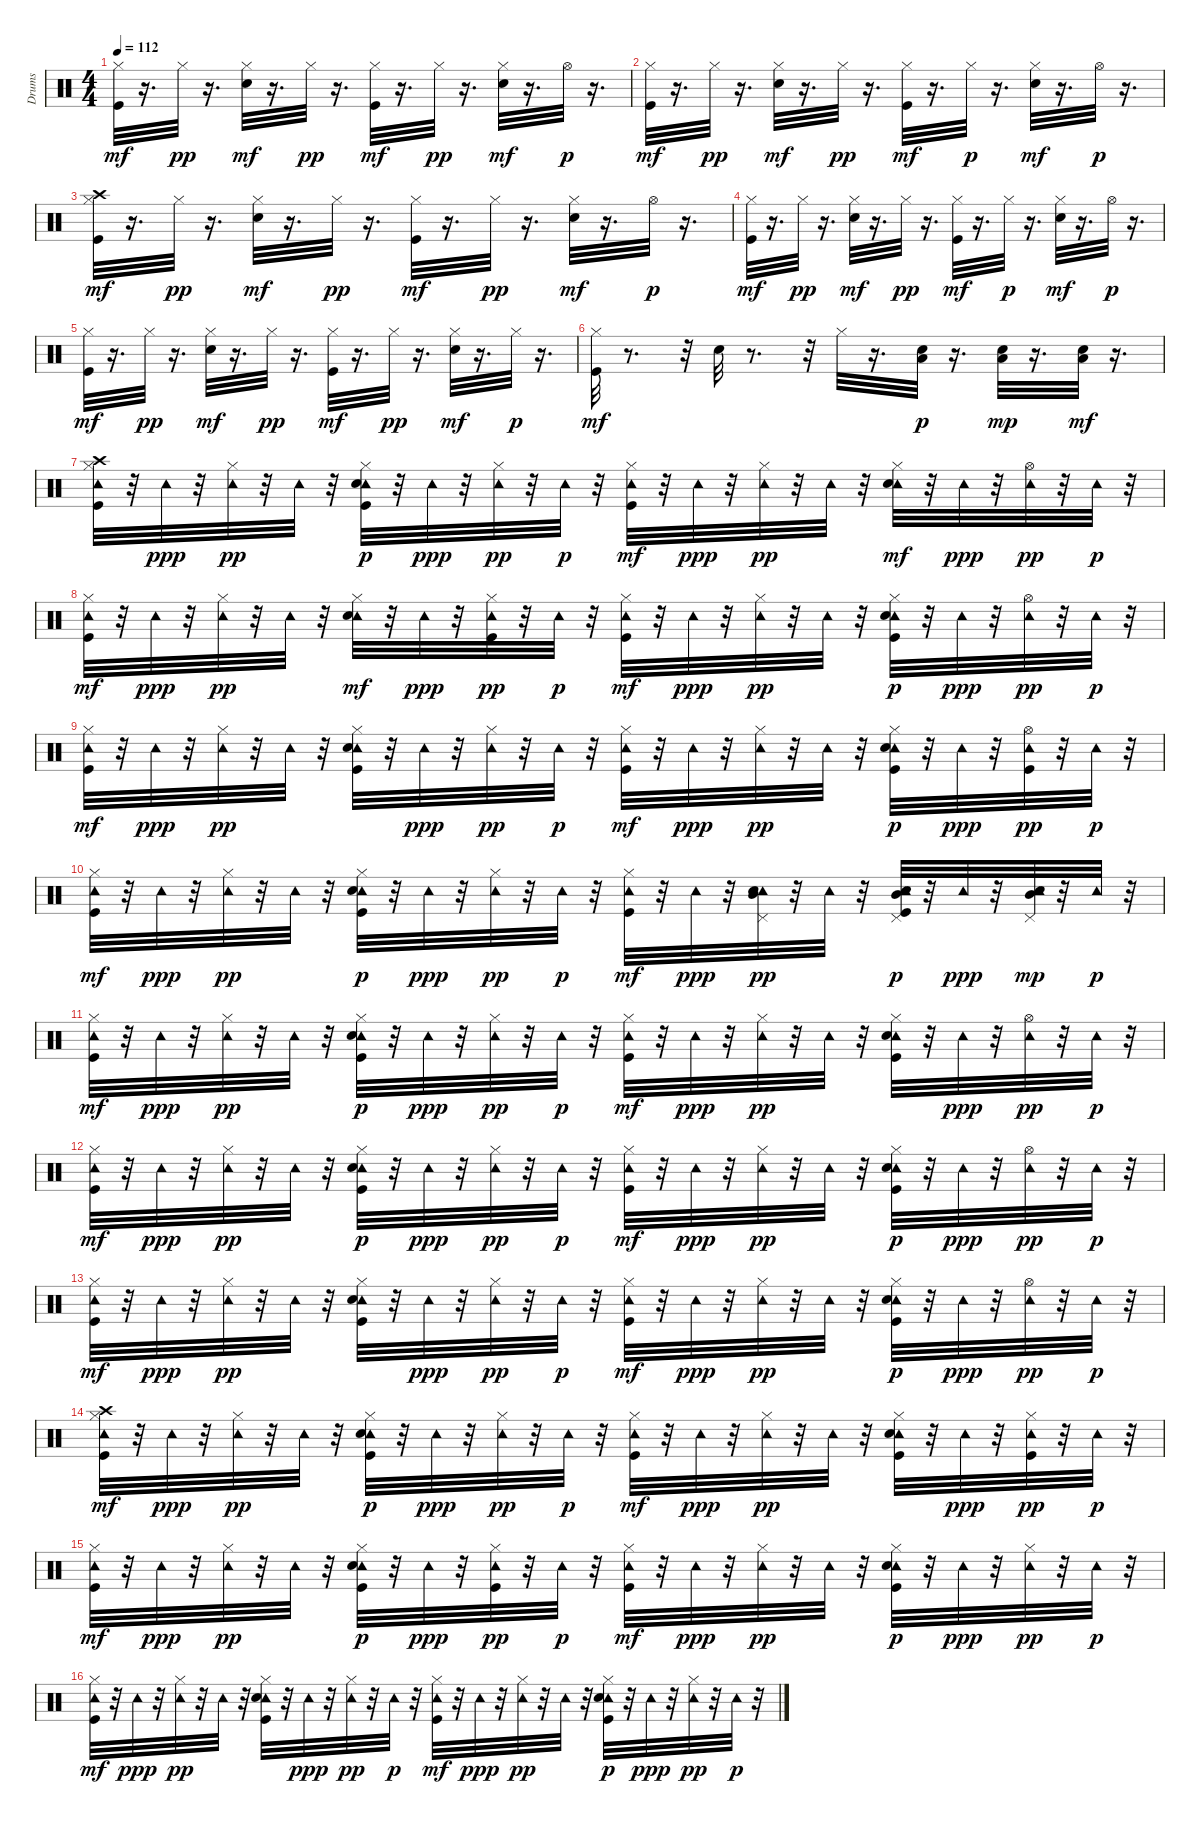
\track ("Drums" "Drums") {instrument percussion}
\staff {score}
\articulation defaults
\ts (4 4)
\tempo 112
\clef neutral
\ks c
("Hi-Hat (closed)" "Kick (hit)").32{dy mf} r.16{d} "Hi-Hat (closed)".32{dy pp} r.16{d} ("Hi-Hat (closed)" "Electric Snare (hit)").32{dy mf} r.16{d} "Hi-Hat (closed)".32{dy pp} r.16{d} ("Hi-Hat (closed)" "Kick (hit)").32{dy mf} r.16{d} "Hi-Hat (closed)".32{dy pp} r.16{d} ("Hi-Hat (closed)" "Electric Snare (hit)").32{dy mf} r.16{d} "Hi-Hat (open)".32{dy p} r.16{d} |
("Hi-Hat (closed)" "Kick (hit)").32{dy mf} r.16{d} "Hi-Hat (closed)".32{dy pp} r.16{d} ("Hi-Hat (closed)" "Electric Snare (hit)").32{dy mf} r.16{d} "Hi-Hat (closed)".32{dy pp} r.16{d} ("Hi-Hat (closed)" "Kick (hit)").32{dy mf} r.16{d} "Hi-Hat (closed)".32{dy p} r.16{d} ("Hi-Hat (closed)" "Electric Snare (hit)").32{dy mf} r.16{d} "Hi-Hat (open)".32{dy p} r.16{d} |
("Crash high (hit)" "Hi-Hat (closed)" "Kick (hit)").32{dy mf} r.16{d} "Hi-Hat (closed)".32{dy pp} r.16{d} ("Hi-Hat (closed)" "Electric Snare (hit)").32{dy mf} r.16{d} "Hi-Hat (closed)".32{dy pp} r.16{d} ("Hi-Hat (closed)" "Kick (hit)").32{dy mf} r.16{d} "Hi-Hat (closed)".32{dy pp} r.16{d} ("Hi-Hat (closed)" "Electric Snare (hit)").32{dy mf} r.16{d} "Hi-Hat (open)".32{dy p} r.16{d} |
("Hi-Hat (closed)" "Kick (hit)").32{dy mf} r.16{d} "Hi-Hat (closed)".32{dy pp} r.16{d} ("Hi-Hat (closed)" "Electric Snare (hit)").32{dy mf} r.16{d} "Hi-Hat (closed)".32{dy pp} r.16{d} ("Hi-Hat (closed)" "Kick (hit)").32{dy mf} r.16{d} "Hi-Hat (closed)".32{dy p} r.16{d} ("Hi-Hat (closed)" "Electric Snare (hit)").32{dy mf} r.16{d} "Hi-Hat (open)".32{dy p} r.16{d} |
("Hi-Hat (closed)" "Kick (hit)").32{dy mf} r.16{d} "Hi-Hat (closed)".32{dy pp} r.16{d} ("Hi-Hat (closed)" "Electric Snare (hit)").32{dy mf} r.16{d} "Hi-Hat (closed)".32{dy pp} r.16{d} ("Hi-Hat (closed)" "Kick (hit)").32{dy mf} r.16{d} "Hi-Hat (closed)".32{dy pp} r.16{d} ("Hi-Hat (closed)" "Electric Snare (hit)").32{dy mf} r.16{d} "Hi-Hat (closed)".32{dy p} r.16{d} |
("Hi-Hat (closed)" "Kick (hit)").32{dy mf} r.8{d} r.32 "Electric Snare (hit)".32 r.8{d} r.32 "Hi-Hat (closed)".32 r.16{d} ("Low Tom (hit)" "Electric Snare (hit)").32{dy p} r.16{d} ("Low Tom (hit)" "Electric Snare (hit)").32{dy mp} r.16{d} ("Low Tom (hit)" "Electric Snare (hit)").32{dy mf} r.16{d} |
("Tambourine (hit)" "Hi-Hat (closed)" "Crash high (hit)" "Kick (hit)").32 r.32 "Tambourine (hit)".32{dy ppp} r.32 ("Tambourine (hit)" "Hi-Hat (closed)").32{dy pp} r.32 "Tambourine (hit)".32 r.32 ("Tambourine (hit)" "Hi-Hat (closed)" "Electric Snare (hit)" "Kick (hit)").32{dy p} r.32 "Tambourine (hit)".32{dy ppp} r.32 ("Tambourine (hit)" "Hi-Hat (closed)").32{dy pp} r.32 "Tambourine (hit)".32{dy p} r.32 ("Tambourine (hit)" "Hi-Hat (closed)" "Kick (hit)").32{dy mf} r.32 "Tambourine (hit)".32{dy ppp} r.32 ("Tambourine (hit)" "Hi-Hat (closed)").32{dy pp} r.32 "Tambourine (hit)".32 r.32 ("Tambourine (hit)" "Hi-Hat (closed)" "Electric Snare (hit)").32{dy mf} r.32 "Tambourine (hit)".32{dy ppp} r.32 ("Hi-Hat (open)" "Tambourine (hit)").32{dy pp} r.32 "Tambourine (hit)".32{dy p} r.32 |
("Tambourine (hit)" "Hi-Hat (closed)" "Kick (hit)").32{dy mf} r.32 "Tambourine (hit)".32{dy ppp} r.32 ("Tambourine (hit)" "Hi-Hat (closed)").32{dy pp} r.32 "Tambourine (hit)".32 r.32 ("Tambourine (hit)" "Hi-Hat (closed)" "Electric Snare (hit)").32{dy mf} r.32 "Tambourine (hit)".32{dy ppp} r.32 ("Kick (hit)" "Tambourine (hit)" "Hi-Hat (closed)").32{dy pp} r.32 "Tambourine (hit)".32{dy p} r.32 ("Tambourine (hit)" "Hi-Hat (closed)" "Kick (hit)").32{dy mf} r.32 "Tambourine (hit)".32{dy ppp} r.32 ("Tambourine (hit)" "Hi-Hat (closed)").32{dy pp} r.32 "Tambourine (hit)".32 r.32 ("Tambourine (hit)" "Hi-Hat (closed)" "Electric Snare (hit)" "Kick (hit)").32{dy p} r.32 "Tambourine (hit)".32{dy ppp} r.32 ("Hi-Hat (open)" "Tambourine (hit)").32{dy pp} r.32 "Tambourine (hit)".32{dy p} r.32 |
("Tambourine (hit)" "Hi-Hat (closed)" "Kick (hit)").32{dy mf} r.32 "Tambourine (hit)".32{dy ppp} r.32 ("Tambourine (hit)" "Hi-Hat (closed)").32{dy pp} r.32 "Tambourine (hit)".32 r.32 ("Tambourine (hit)" "Hi-Hat (closed)" "Electric Snare (hit)" "Kick (hit)").32 r.32 "Tambourine (hit)".32{dy ppp} r.32 ("Tambourine (hit)" "Hi-Hat (closed)").32{dy pp} r.32 "Tambourine (hit)".32{dy p} r.32 ("Tambourine (hit)" "Hi-Hat (closed)" "Kick (hit)").32{dy mf} r.32 "Tambourine (hit)".32{dy ppp} r.32 ("Tambourine (hit)" "Hi-Hat (closed)").32{dy pp} r.32 "Tambourine (hit)".32 r.32 ("Tambourine (hit)" "Hi-Hat (closed)" "Electric Snare (hit)" "Kick (hit)").32{dy p} r.32 "Tambourine (hit)".32{dy ppp} r.32 ("Kick (hit)" "Hi-Hat (open)" "Tambourine (hit)").32{dy pp} r.32 "Tambourine (hit)".32{dy p} r.32 |
("Tambourine (hit)" "Hi-Hat (closed)" "Kick (hit)").32{dy mf} r.32 "Tambourine (hit)".32{dy ppp} r.32 ("Tambourine (hit)" "Hi-Hat (closed)").32{dy pp} r.32 "Tambourine (hit)".32 r.32 ("Tambourine (hit)" "Hi-Hat (closed)" "Electric Snare (hit)" "Kick (hit)").32{dy p} r.32 "Tambourine (hit)".32{dy ppp} r.32 ("Tambourine (hit)" "Hi-Hat (closed)").32{dy pp} r.32 "Tambourine (hit)".32{dy p} r.32 ("Tambourine (hit)" "Hi-Hat (closed)" "Kick (hit)").32{dy mf} r.32 "Tambourine (hit)".32{dy ppp} r.32 ("Tambourine (hit)" "Pedal Hi-Hat (hit)" "Mid Tom (hit)" "Electric Snare (hit)").32{dy pp} r.32 "Tambourine (hit)".32 r.32 ("Tambourine (hit)" "Pedal Hi-Hat (hit)" "Mid Tom (hit)" "Electric Snare (hit)" "Kick (hit)").32{dy p} r.32 "Tambourine (hit)".32{dy ppp} r.32 ("Tambourine (hit)" "Pedal Hi-Hat (hit)" "Mid Tom (hit)" "Electric Snare (hit)").32{dy mp} r.32 "Tambourine (hit)".32{dy p} r.32 |
("Tambourine (hit)" "Hi-Hat (closed)" "Kick (hit)").32{dy mf} r.32 "Tambourine (hit)".32{dy ppp} r.32 ("Tambourine (hit)" "Hi-Hat (closed)").32{dy pp} r.32 "Tambourine (hit)".32 r.32 ("Tambourine (hit)" "Hi-Hat (closed)" "Electric Snare (hit)" "Kick (hit)").32{dy p} r.32 "Tambourine (hit)".32{dy ppp} r.32 ("Tambourine (hit)" "Hi-Hat (closed)").32{dy pp} r.32 "Tambourine (hit)".32{dy p} r.32 ("Tambourine (hit)" "Hi-Hat (closed)" "Kick (hit)").32{dy mf} r.32 "Tambourine (hit)".32{dy ppp} r.32 ("Tambourine (hit)" "Hi-Hat (closed)").32{dy pp} r.32 "Tambourine (hit)".32 r.32 ("Tambourine (hit)" "Hi-Hat (closed)" "Electric Snare (hit)" "Kick (hit)").32 r.32 "Tambourine (hit)".32{dy ppp} r.32 ("Hi-Hat (open)" "Tambourine (hit)").32{dy pp} r.32 "Tambourine (hit)".32{dy p} r.32 |
("Tambourine (hit)" "Hi-Hat (closed)" "Kick (hit)").32{dy mf} r.32 "Tambourine (hit)".32{dy ppp} r.32 ("Tambourine (hit)" "Hi-Hat (closed)").32{dy pp} r.32 "Tambourine (hit)".32 r.32 ("Tambourine (hit)" "Hi-Hat (closed)" "Electric Snare (hit)" "Kick (hit)").32{dy p} r.32 "Tambourine (hit)".32{dy ppp} r.32 ("Tambourine (hit)" "Hi-Hat (closed)").32{dy pp} r.32 "Tambourine (hit)".32{dy p} r.32 ("Tambourine (hit)" "Hi-Hat (closed)" "Kick (hit)").32{dy mf} r.32 "Tambourine (hit)".32{dy ppp} r.32 ("Tambourine (hit)" "Hi-Hat (closed)").32{dy pp} r.32 "Tambourine (hit)".32 r.32 ("Tambourine (hit)" "Hi-Hat (closed)" "Electric Snare (hit)" "Kick (hit)").32{dy p} r.32 "Tambourine (hit)".32{dy ppp} r.32 ("Hi-Hat (open)" "Tambourine (hit)").32{dy pp} r.32 "Tambourine (hit)".32{dy p} r.32 |
("Tambourine (hit)" "Hi-Hat (closed)" "Kick (hit)").32{dy mf} r.32 "Tambourine (hit)".32{dy ppp} r.32 ("Tambourine (hit)" "Hi-Hat (closed)").32{dy pp} r.32 "Tambourine (hit)".32 r.32 ("Tambourine (hit)" "Hi-Hat (closed)" "Electric Snare (hit)" "Kick (hit)").32 r.32 "Tambourine (hit)".32{dy ppp} r.32 ("Tambourine (hit)" "Hi-Hat (closed)").32{dy pp} r.32 "Tambourine (hit)".32{dy p} r.32 ("Tambourine (hit)" "Hi-Hat (closed)" "Kick (hit)").32{dy mf} r.32 "Tambourine (hit)".32{dy ppp} r.32 ("Tambourine (hit)" "Hi-Hat (closed)").32{dy pp} r.32 "Tambourine (hit)".32 r.32 ("Tambourine (hit)" "Hi-Hat (closed)" "Electric Snare (hit)" "Kick (hit)").32{dy p} r.32 "Tambourine (hit)".32{dy ppp} r.32 ("Hi-Hat (open)" "Tambourine (hit)").32{dy pp} r.32 "Tambourine (hit)".32{dy p} r.32 |
("Tambourine (hit)" "Hi-Hat (closed)" "Crash high (hit)" "Kick (hit)").32{dy mf} r.32 "Tambourine (hit)".32{dy ppp} r.32 ("Tambourine (hit)" "Hi-Hat (closed)").32{dy pp} r.32 "Tambourine (hit)".32 r.32 ("Tambourine (hit)" "Hi-Hat (closed)" "Electric Snare (hit)" "Kick (hit)").32{dy p} r.32 "Tambourine (hit)".32{dy ppp} r.32 ("Tambourine (hit)" "Hi-Hat (closed)").32{dy pp} r.32 "Tambourine (hit)".32{dy p} r.32 ("Tambourine (hit)" "Hi-Hat (closed)" "Kick (hit)").32{dy mf} r.32 "Tambourine (hit)".32{dy ppp} r.32 ("Tambourine (hit)" "Hi-Hat (closed)").32{dy pp} r.32 "Tambourine (hit)".32 r.32 ("Tambourine (hit)" "Hi-Hat (closed)" "Electric Snare (hit)" "Kick (hit)").32 r.32 "Tambourine (hit)".32{dy ppp} r.32 ("Kick (hit)" "Hi-Hat (closed)" "Tambourine (hit)").32{dy pp} r.32 "Tambourine (hit)".32{dy p} r.32 |
("Tambourine (hit)" "Hi-Hat (closed)" "Kick (hit)").32{dy mf} r.32 "Tambourine (hit)".32{dy ppp} r.32 ("Tambourine (hit)" "Hi-Hat (closed)").32{dy pp} r.32 "Tambourine (hit)".32 r.32 ("Tambourine (hit)" "Hi-Hat (closed)" "Electric Snare (hit)" "Kick (hit)").32{dy p} r.32 "Tambourine (hit)".32{dy ppp} r.32 ("Kick (hit)" "Tambourine (hit)" "Hi-Hat (closed)").32{dy pp} r.32 "Tambourine (hit)".32{dy p} r.32 ("Tambourine (hit)" "Hi-Hat (closed)" "Kick (hit)").32{dy mf} r.32 "Tambourine (hit)".32{dy ppp} r.32 ("Tambourine (hit)" "Hi-Hat (closed)").32{dy pp} r.32 "Tambourine (hit)".32 r.32 ("Tambourine (hit)" "Hi-Hat (closed)" "Electric Snare (hit)" "Kick (hit)").32{dy p} r.32 "Tambourine (hit)".32{dy ppp} r.32 ("Hi-Hat (closed)" "Tambourine (hit)").32{dy pp} r.32 "Tambourine (hit)".32{dy p} r.32 |
("Tambourine (hit)" "Hi-Hat (closed)" "Kick (hit)").32{dy mf} r.32 "Tambourine (hit)".32{dy ppp} r.32 ("Tambourine (hit)" "Hi-Hat (closed)").32{dy pp} r.32 "Tambourine (hit)".32 r.32 ("Tambourine (hit)" "Hi-Hat (closed)" "Electric Snare (hit)" "Kick (hit)").32 r.32 "Tambourine (hit)".32{dy ppp} r.32 ("Tambourine (hit)" "Hi-Hat (closed)").32{dy pp} r.32 "Tambourine (hit)".32{dy p} r.32 ("Tambourine (hit)" "Hi-Hat (closed)" "Kick (hit)").32{dy mf} r.32 "Tambourine (hit)".32{dy ppp} r.32 ("Tambourine (hit)" "Hi-Hat (closed)").32{dy pp} r.32 "Tambourine (hit)".32 r.32 ("Tambourine (hit)" "Hi-Hat (closed)" "Electric Snare (hit)" "Kick (hit)").32{dy p} r.32 "Tambourine (hit)".32{dy ppp} r.32 ("Hi-Hat (closed)" "Tambourine (hit)").32{dy pp} r.32 "Tambourine (hit)".32{dy p} r.32
